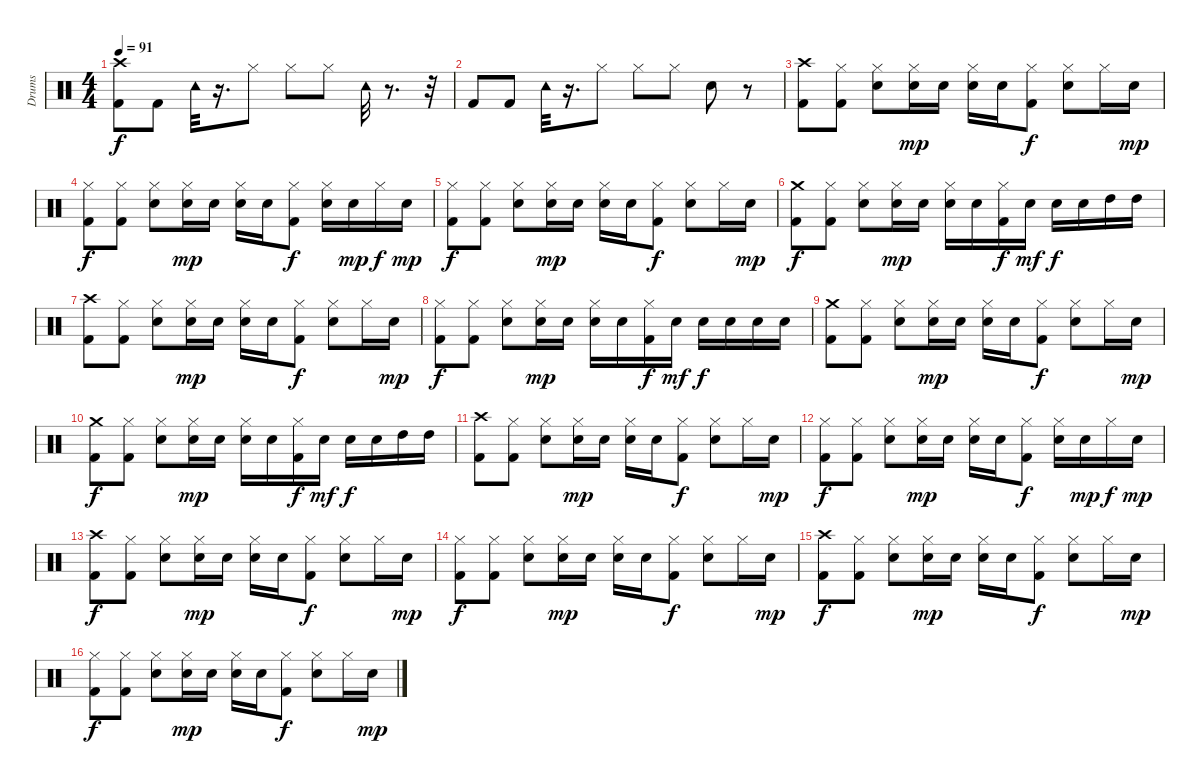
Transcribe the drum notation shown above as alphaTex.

\track ("Drums" "Drums") {instrument percussion}
\staff {score}
\articulation defaults
\ts (4 4)
\tempo 91
\clef neutral
\ks c
("Kick (hit) 2" "Crash high (hit)").8{dy f} "Kick (hit) 2".8 "Tambourine (hit)".32 r.16{d} "Hi-Hat (closed)".8 "Hi-Hat (closed)".8 "Hi-Hat (closed)".8 "Tambourine (hit)".32 r.8{d} r.32 |
"Kick (hit) 2".8 "Kick (hit) 2".8 "Tambourine (hit)".32 r.16{d} "Hi-Hat (closed)".8 "Hi-Hat (closed)".8 "Hi-Hat (closed)".8 "Snare (hit) 2".8 r.8 |
("Kick (hit) 2" "Crash high (hit)").8 ("Kick (hit) 2" "Hi-Hat (closed)").8 ("Snare (hit) 2" "Hi-Hat (closed)").8 ("Snare (hit) 2" "Hi-Hat (closed)").16{dy mp} "Snare (hit) 2".16 ("Snare (hit) 2" "Hi-Hat (closed)").16 "Snare (hit) 2".16 ("Kick (hit) 2" "Hi-Hat (closed)").8{dy f} ("Snare (hit) 2" "Hi-Hat (closed)").8 "Hi-Hat (closed)".16 "Snare (hit) 2".16{dy mp} |
("Kick (hit) 2" "Hi-Hat (closed)").8{dy f} ("Kick (hit) 2" "Hi-Hat (closed)").8 ("Snare (hit) 2" "Hi-Hat (closed)").8 ("Snare (hit) 2" "Hi-Hat (closed)").16{dy mp} "Snare (hit) 2".16 ("Snare (hit) 2" "Hi-Hat (closed)").16 "Snare (hit) 2".16 ("Kick (hit) 2" "Hi-Hat (closed)").8{dy f} ("Snare (hit) 2" "Hi-Hat (closed)").16 "Snare (hit) 2".16{dy mp} "Hi-Hat (closed)".16{dy f} "Snare (hit) 2".16{dy mp} |
("Kick (hit) 2" "Hi-Hat (closed)").8{dy f} ("Kick (hit) 2" "Hi-Hat (closed)").8 ("Snare (hit) 2" "Hi-Hat (closed)").8 ("Snare (hit) 2" "Hi-Hat (closed)").16{dy mp} "Snare (hit) 2".16 ("Snare (hit) 2" "Hi-Hat (closed)").16 "Snare (hit) 2".16 ("Kick (hit) 2" "Hi-Hat (closed)").8{dy f} ("Snare (hit) 2" "Hi-Hat (closed)").8 "Hi-Hat (closed)".16 "Snare (hit) 2".16{dy mp} |
("Crash medium (hit)" "Kick (hit) 2").8{dy f} ("Hi-Hat (closed)" "Kick (hit) 2").8 ("Hi-Hat (closed)" "Snare (hit) 2").8 ("Hi-Hat (closed)" "Snare (hit) 2").16{dy mp} "Snare (hit) 2".16 ("Hi-Hat (closed)" "Snare (hit) 2").16 "Snare (hit) 2".16 ("Hi-Hat (closed)" "Kick (hit) 2").16{dy f} "Snare (hit) 2".16{dy mf} "Snare (hit) 2".16{dy f} "Snare (hit) 2".16 "High Tom (hit)".16 "High Tom (hit)".16 |
("Kick (hit) 2" "Crash high (hit)").8{volume 16} ("Kick (hit) 2" "Hi-Hat (closed)").8 ("Snare (hit) 2" "Hi-Hat (closed)").8 ("Snare (hit) 2" "Hi-Hat (closed)").16{dy mp} "Snare (hit) 2".16 ("Snare (hit) 2" "Hi-Hat (closed)").16 "Snare (hit) 2".16 ("Kick (hit) 2" "Hi-Hat (closed)").8{dy f} ("Snare (hit) 2" "Hi-Hat (closed)").8 "Hi-Hat (closed)".16 "Snare (hit) 2".16{dy mp} |
("Kick (hit) 2" "Hi-Hat (closed)").8{dy f} ("Kick (hit) 2" "Hi-Hat (closed)").8 ("Snare (hit) 2" "Hi-Hat (closed)").8 ("Snare (hit) 2" "Hi-Hat (closed)").16{dy mp} "Snare (hit) 2".16 ("Snare (hit) 2" "Hi-Hat (closed)").16 "Snare (hit) 2".16 ("Kick (hit) 2" "Hi-Hat (closed)").16{dy f} "Snare (hit) 2".16{dy mf} "Snare (hit) 2".16{dy f} "Snare (hit) 2".16 "Snare (hit) 2".16 "Snare (hit) 2".16 |
("Kick (hit) 2" "Crash medium (hit)").8 ("Kick (hit) 2" "Hi-Hat (closed)").8 ("Snare (hit) 2" "Hi-Hat (closed)").8 ("Snare (hit) 2" "Hi-Hat (closed)").16{dy mp} "Snare (hit) 2".16 ("Snare (hit) 2" "Hi-Hat (closed)").16 "Snare (hit) 2".16 ("Kick (hit) 2" "Hi-Hat (closed)").8{dy f} ("Snare (hit) 2" "Hi-Hat (closed)").8 "Hi-Hat (closed)".16 "Snare (hit) 2".16{dy mp} |
("Crash medium (hit)" "Kick (hit) 2").8{dy f} ("Hi-Hat (closed)" "Kick (hit) 2").8 ("Hi-Hat (closed)" "Snare (hit) 2").8 ("Hi-Hat (closed)" "Snare (hit) 2").16{dy mp} "Snare (hit) 2".16 ("Hi-Hat (closed)" "Snare (hit) 2").16 "Snare (hit) 2".16 ("Hi-Hat (closed)" "Kick (hit) 2").16{dy f} "Snare (hit) 2".16{dy mf} "Snare (hit) 2".16{dy f} "Snare (hit) 2".16 "High Tom (hit)".16 "High Tom (hit)".16 |
("Kick (hit) 2" "Crash high (hit)").8 ("Kick (hit) 2" "Hi-Hat (closed)").8 ("Snare (hit) 2" "Hi-Hat (closed)").8 ("Snare (hit) 2" "Hi-Hat (closed)").16{dy mp} "Snare (hit) 2".16 ("Snare (hit) 2" "Hi-Hat (closed)").16 "Snare (hit) 2".16 ("Kick (hit) 2" "Hi-Hat (closed)").8{dy f} ("Snare (hit) 2" "Hi-Hat (closed)").8 "Hi-Hat (closed)".16 "Snare (hit) 2".16{dy mp} |
("Kick (hit) 2" "Hi-Hat (closed)").8{dy f} ("Kick (hit) 2" "Hi-Hat (closed)").8 ("Snare (hit) 2" "Hi-Hat (closed)").8 ("Snare (hit) 2" "Hi-Hat (closed)").16{dy mp} "Snare (hit) 2".16 ("Snare (hit) 2" "Hi-Hat (closed)").16 "Snare (hit) 2".16 ("Kick (hit) 2" "Hi-Hat (closed)").8{dy f} ("Snare (hit) 2" "Hi-Hat (closed)").16 "Snare (hit) 2".16{dy mp} "Hi-Hat (closed)".16{dy f} "Snare (hit) 2".16{dy mp} |
("Kick (hit) 2" "Crash high (hit)").8{dy f} ("Kick (hit) 2" "Hi-Hat (closed)").8 ("Snare (hit) 2" "Hi-Hat (closed)").8 ("Snare (hit) 2" "Hi-Hat (closed)").16{dy mp} "Snare (hit) 2".16 ("Snare (hit) 2" "Hi-Hat (closed)").16 "Snare (hit) 2".16 ("Kick (hit) 2" "Hi-Hat (closed)").8{dy f} ("Snare (hit) 2" "Hi-Hat (closed)").8 "Hi-Hat (closed)".16 "Snare (hit) 2".16{dy mp} |
("Hi-Hat (closed)" "Kick (hit) 2").8{dy f} ("Hi-Hat (closed)" "Kick (hit) 2").8 ("Hi-Hat (closed)" "Snare (hit) 2").8 ("Hi-Hat (closed)" "Snare (hit) 2").16{dy mp} "Snare (hit) 2".16 ("Hi-Hat (closed)" "Snare (hit) 2").16 "Snare (hit) 2".16 ("Hi-Hat (closed)" "Kick (hit) 2").8{dy f} ("Snare (hit) 2" "Hi-Hat (closed)").8 "Hi-Hat (closed)".16 "Snare (hit) 2".16{dy mp} |
("Crash high (hit)" "Kick (hit) 2").8{dy f} ("Hi-Hat (closed)" "Kick (hit) 2").8 ("Hi-Hat (closed)" "Snare (hit) 2").8 ("Hi-Hat (closed)" "Snare (hit) 2").16{dy mp} "Snare (hit) 2".16 ("Snare (hit) 2" "Hi-Hat (closed)").16 "Snare (hit) 2".16 ("Kick (hit) 2" "Hi-Hat (closed)").8{dy f} ("Snare (hit) 2" "Hi-Hat (closed)").8 "Hi-Hat (closed)".16 "Snare (hit) 2".16{dy mp} |
("Hi-Hat (closed)" "Kick (hit) 2").8{dy f} ("Hi-Hat (closed)" "Kick (hit) 2").8 ("Hi-Hat (closed)" "Snare (hit) 2").8 ("Hi-Hat (closed)" "Snare (hit) 2").16{dy mp} "Snare (hit) 2".16 ("Snare (hit) 2" "Hi-Hat (closed)").16 "Snare (hit) 2".16 ("Hi-Hat (closed)" "Kick (hit) 2").8{dy f} ("Snare (hit) 2" "Hi-Hat (closed)").8 "Hi-Hat (closed)".16 "Snare (hit) 2".16{dy mp}
